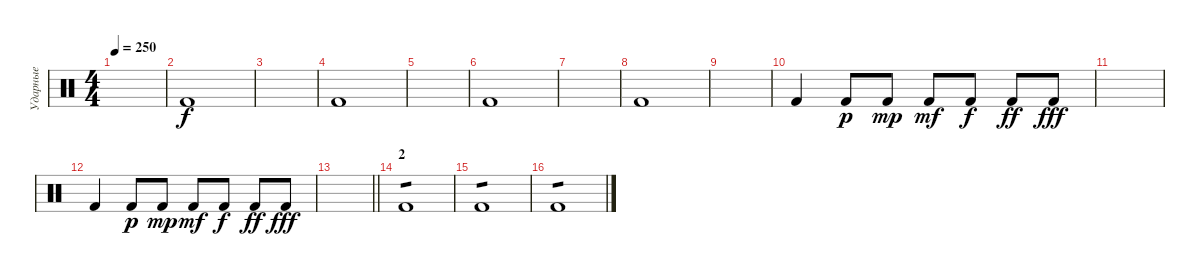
\track ("Ударные" "Ударные") {instrument percussion}
\staff {score}
\articulation defaults
\ts (4 4)
\tempo 250
\clef neutral
\ks c
|
"Kick (hit) 2".1 |
|
"Kick (hit) 2".1 |
|
"Kick (hit) 2".1 |
|
"Kick (hit) 2".1 |
|
"Kick (hit) 2".4 "Kick (hit) 2".8{dy p} "Kick (hit) 2".8{dy mp} "Kick (hit) 2".8{dy mf} "Kick (hit) 2".8{dy f} "Kick (hit) 2".8{dy ff} "Kick (hit) 2".8{dy fff} |
|
"Kick (hit) 2".4 "Kick (hit) 2".8{dy p} "Kick (hit) 2".8{dy mp} "Kick (hit) 2".8{dy mf} "Kick (hit) 2".8{dy f} "Kick (hit) 2".8{dy ff} "Kick (hit) 2".8{dy fff} |
\barLineRight lightlight
|
\section ("" "2")
"Kick (hit) 2".1{tp 1} |
"Kick (hit) 2".1{tp 1} |
"Kick (hit) 2".1{tp 1}
